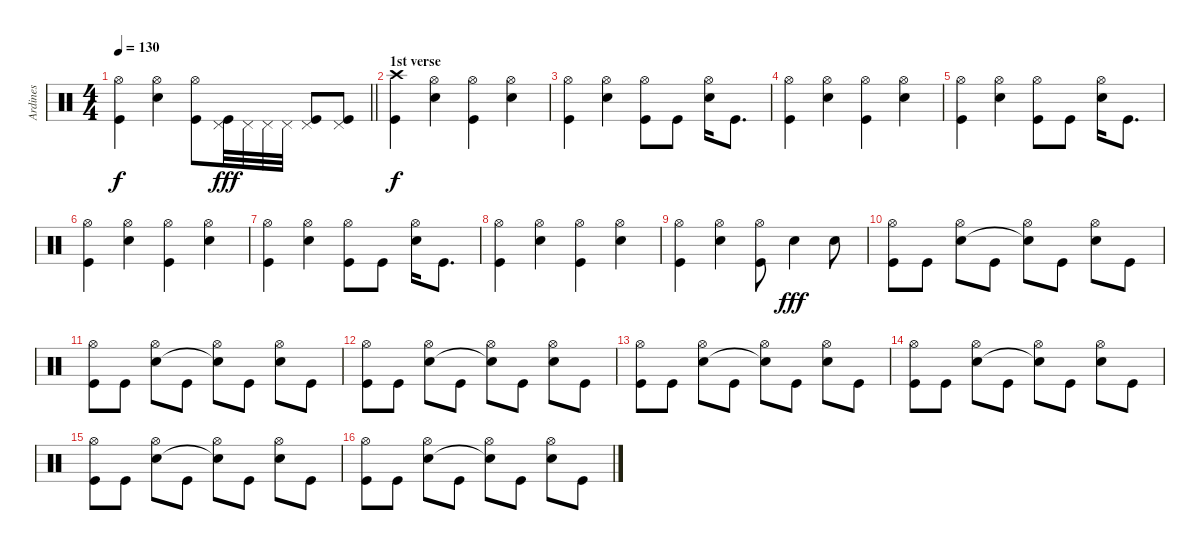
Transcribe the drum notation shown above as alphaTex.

\track ("Ardines" "Ardines") {instrument percussion}
\staff {score}
\articulation defaults
\ts (4 4)
\tempo 130
\clef neutral
\barLineRight lightlight
\ks c
("Hi-Hat (open)" "Kick (hit)").4{dy f} ("Hi-Hat (open)" "Electric Snare (hit)").4 ("Hi-Hat (open)" "Kick (hit)").8 ("Pedal Hi-Hat (hit)" "Kick (hit)").32{dy fff} "Pedal Hi-Hat (hit)".32 "Pedal Hi-Hat (hit)".32 "Pedal Hi-Hat (hit)".32 ("Pedal Hi-Hat (hit)" "Kick (hit)").8 ("Pedal Hi-Hat (hit)" "Kick (hit)").8 |
\section ("" "1st verse")
("Crash high (hit)" "Kick (hit)").4{dy f} ("Hi-Hat (open)" "Electric Snare (hit)").4 ("Hi-Hat (open)" "Kick (hit)").4 ("Hi-Hat (open)" "Electric Snare (hit)").4 |
("Hi-Hat (open)" "Kick (hit)").4 ("Hi-Hat (open)" "Electric Snare (hit)").4 ("Hi-Hat (open)" "Kick (hit)").8 "Kick (hit)".8 ("Hi-Hat (open)" "Electric Snare (hit)").16 "Kick (hit)".8{d} |
("Hi-Hat (open)" "Kick (hit)").4 ("Hi-Hat (open)" "Electric Snare (hit)").4 ("Hi-Hat (open)" "Kick (hit)").4 ("Hi-Hat (open)" "Electric Snare (hit)").4 |
("Hi-Hat (open)" "Kick (hit)").4 ("Hi-Hat (open)" "Electric Snare (hit)").4 ("Hi-Hat (open)" "Kick (hit)").8 "Kick (hit)".8 ("Hi-Hat (open)" "Electric Snare (hit)").16 "Kick (hit)".8{d} |
("Hi-Hat (open)" "Kick (hit)").4 ("Hi-Hat (open)" "Electric Snare (hit)").4 ("Hi-Hat (open)" "Kick (hit)").4 ("Hi-Hat (open)" "Electric Snare (hit)").4 |
("Hi-Hat (open)" "Kick (hit)").4 ("Hi-Hat (open)" "Electric Snare (hit)").4 ("Hi-Hat (open)" "Kick (hit)").8 "Kick (hit)".8 ("Hi-Hat (open)" "Electric Snare (hit)").16 "Kick (hit)".8{d} |
("Hi-Hat (open)" "Kick (hit)").4 ("Hi-Hat (open)" "Electric Snare (hit)").4 ("Hi-Hat (open)" "Kick (hit)").4 ("Hi-Hat (open)" "Electric Snare (hit)").4 |
("Hi-Hat (open)" "Kick (hit)").4 ("Hi-Hat (open)" "Electric Snare (hit)").4 ("Hi-Hat (open)" "Kick (hit)").8 "Electric Snare (hit)".4{dy fff} "Electric Snare (hit)".8 |
("Hi-Hat (open)" "Kick (hit)").8 "Kick (hit)".8 ("Hi-Hat (open)" "Electric Snare (hit)").8 "Kick (hit)".8 ("Hi-Hat (open)" "Snare (hit)"{t}).8 "Kick (hit)".8 ("Hi-Hat (open)" "Electric Snare (hit)").8 "Kick (hit)".8 |
("Hi-Hat (open)" "Kick (hit)").8 "Kick (hit)".8 ("Hi-Hat (open)" "Electric Snare (hit)").8 "Kick (hit)".8 ("Hi-Hat (open)" "Snare (hit)"{t}).8 "Kick (hit)".8 ("Hi-Hat (open)" "Electric Snare (hit)").8 "Kick (hit)".8 |
("Hi-Hat (open)" "Kick (hit)").8 "Kick (hit)".8 ("Hi-Hat (open)" "Electric Snare (hit)").8 "Kick (hit)".8 ("Hi-Hat (open)" "Snare (hit)"{t}).8 "Kick (hit)".8 ("Hi-Hat (open)" "Electric Snare (hit)").8 "Kick (hit)".8 |
("Hi-Hat (open)" "Kick (hit)").8 "Kick (hit)".8 ("Hi-Hat (open)" "Electric Snare (hit)").8 "Kick (hit)".8 ("Hi-Hat (open)" "Snare (hit)"{t}).8 "Kick (hit)".8 ("Hi-Hat (open)" "Electric Snare (hit)").8 "Kick (hit)".8 |
("Hi-Hat (open)" "Kick (hit)").8 "Kick (hit)".8 ("Hi-Hat (open)" "Electric Snare (hit)").8 "Kick (hit)".8 ("Hi-Hat (open)" "Snare (hit)"{t}).8 "Kick (hit)".8 ("Hi-Hat (open)" "Electric Snare (hit)").8 "Kick (hit)".8 |
("Hi-Hat (open)" "Kick (hit)").8 "Kick (hit)".8 ("Hi-Hat (open)" "Electric Snare (hit)").8 "Kick (hit)".8 ("Hi-Hat (open)" "Snare (hit)"{t}).8 "Kick (hit)".8 ("Hi-Hat (open)" "Electric Snare (hit)").8 "Kick (hit)".8 |
("Hi-Hat (open)" "Kick (hit)").8 "Kick (hit)".8 ("Hi-Hat (open)" "Electric Snare (hit)").8 "Kick (hit)".8 ("Hi-Hat (open)" "Snare (hit)"{t}).8 "Kick (hit)".8 ("Hi-Hat (open)" "Electric Snare (hit)").8 "Kick (hit)".8
